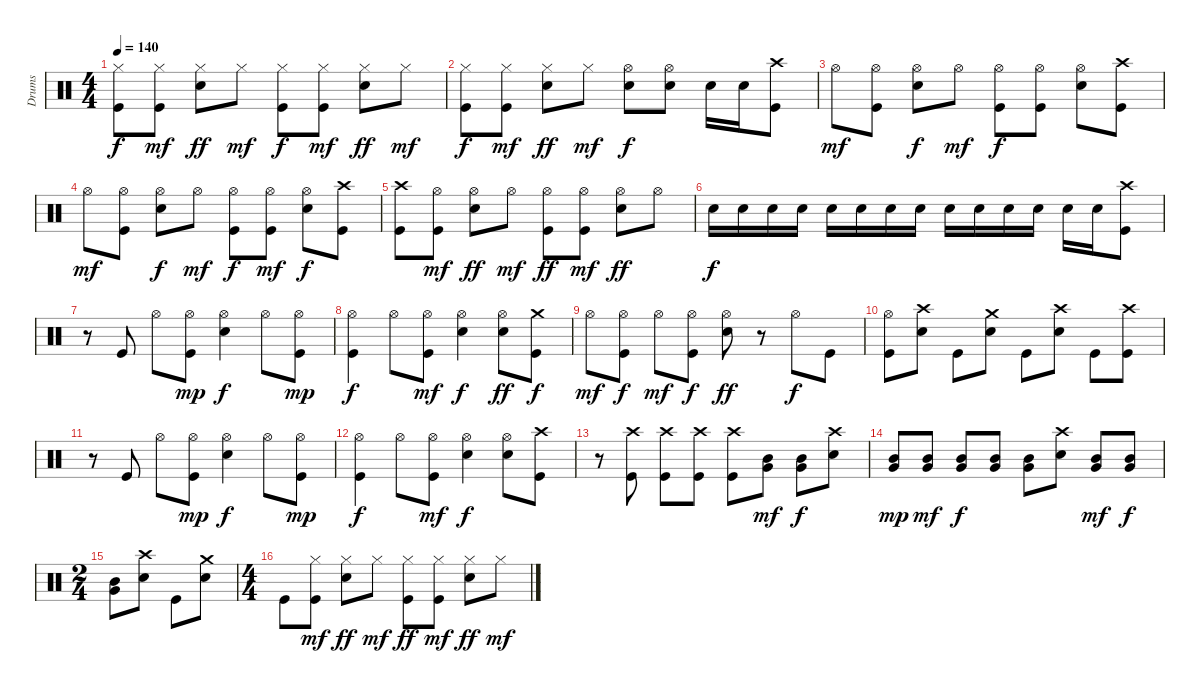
\track ("Drums" "Drums") {instrument percussion}
\staff {score}
\articulation defaults
\ts (4 4)
\tempo 140
\clef neutral
\ks c
("Hi-Hat (closed)" "Kick (hit)").8{dy f} ("Hi-Hat (closed)" "Kick (hit)").8{dy mf} ("Hi-Hat (closed)" "Snare (hit) 2").8{dy ff} "Hi-Hat (closed)".8{dy mf} ("Hi-Hat (closed)" "Kick (hit)").8{dy f} ("Hi-Hat (closed)" "Kick (hit)").8{dy mf} ("Hi-Hat (closed)" "Snare (hit) 2").8{dy ff} "Hi-Hat (closed)".8{dy mf} |
("Hi-Hat (closed)" "Kick (hit)").8{dy f} ("Hi-Hat (closed)" "Kick (hit)").8{dy mf} ("Hi-Hat (closed)" "Snare (hit) 2").8{dy ff} "Hi-Hat (closed)".8{dy mf} ("Hi-Hat (open)" "Snare (hit) 2").8{dy f} ("Hi-Hat (open)" "Snare (hit) 2").8 "Snare (hit) 2".16 "Snare (hit) 2".16 ("Crash high (hit)" "Kick (hit)").8 |
"Hi-Hat (open)".8{dy mf} ("Hi-Hat (open)" "Kick (hit)").8 ("Hi-Hat (open)" "Snare (hit) 2").8{dy f} "Hi-Hat (open)".8{dy mf} ("Hi-Hat (open)" "Kick (hit)").8{dy f} ("Hi-Hat (open)" "Kick (hit)").8 ("Hi-Hat (open)" "Snare (hit) 2").8 ("Crash high (hit)" "Kick (hit)").8 |
"Hi-Hat (open)".8{dy mf} ("Hi-Hat (open)" "Kick (hit)").8 ("Hi-Hat (open)" "Snare (hit) 2").8{dy f} "Hi-Hat (open)".8{dy mf} ("Hi-Hat (open)" "Kick (hit)").8{dy f} ("Hi-Hat (open)" "Kick (hit)").8{dy mf} ("Hi-Hat (open)" "Snare (hit) 2").8{dy f} ("Crash high (hit)" "Kick (hit)").8 |
("Crash high (hit)" "Kick (hit)").8 ("Hi-Hat (open)" "Kick (hit)").8{dy mf} ("Hi-Hat (open)" "Snare (hit) 2").8{dy ff} "Hi-Hat (open)".8{dy mf} ("Hi-Hat (open)" "Kick (hit)").8{dy ff} ("Hi-Hat (open)" "Kick (hit)").8{dy mf} ("Hi-Hat (open)" "Snare (hit) 2").8{dy ff} "Hi-Hat (open)".8 |
"Snare (hit) 2".16{dy f} "Snare (hit) 2".16 "Snare (hit) 2".16 "Snare (hit) 2".16 "Snare (hit) 2".16 "Snare (hit) 2".16 "Snare (hit) 2".16 "Snare (hit) 2".16 "Snare (hit) 2".16 "Snare (hit) 2".16 "Snare (hit) 2".16 "Snare (hit) 2".16 "Snare (hit) 2".16 "Snare (hit) 2".16 ("Crash high (hit)" "Kick (hit)").8 |
r.8 "Kick (hit)".8 "Hi-Hat (open)".8 ("Hi-Hat (open)" "Kick (hit)").8{dy mp} ("Hi-Hat (open)" "Snare (hit) 2").4{dy f} "Hi-Hat (open)".8 ("Hi-Hat (open)" "Kick (hit)").8{dy mp} |
("Hi-Hat (open)" "Kick (hit)").4{dy f} "Hi-Hat (open)".8 ("Hi-Hat (open)" "Kick (hit)").8{dy mf} ("Hi-Hat (open)" "Snare (hit) 2").4{dy f} ("Hi-Hat (open)" "Snare (hit) 2").8{dy ff} ("Crash medium (hit)" "Kick (hit)").8{dy f} |
"Hi-Hat (open)".8{dy mf} ("Hi-Hat (open)" "Kick (hit)").8{dy f} "Hi-Hat (open)".8{dy mf} ("Hi-Hat (open)" "Kick (hit)").8{dy f} ("Hi-Hat (open)" "Snare (hit) 2").8{dy ff} r.8 "Hi-Hat (open)".8{dy f} "Kick (hit)".8 |
("Hi-Hat (open)" "Kick (hit)").8 ("Crash high (hit)" "Snare (hit) 2").8 "Kick (hit)".8 ("Crash medium (hit)" "Snare (hit) 2").8 "Kick (hit)".8 ("Crash high (hit)" "Snare (hit) 2").8 "Kick (hit)".8 ("Crash high (hit)" "Kick (hit)").8 |
r.8 "Kick (hit)".8 "Hi-Hat (open)".8 ("Hi-Hat (open)" "Kick (hit)").8{dy mp} ("Hi-Hat (open)" "Snare (hit) 2").4{dy f} "Hi-Hat (open)".8 ("Hi-Hat (open)" "Kick (hit)").8{dy mp} |
("Hi-Hat (open)" "Kick (hit)").4{dy f} "Hi-Hat (open)".8 ("Hi-Hat (open)" "Kick (hit)").8{dy mf} ("Hi-Hat (open)" "Snare (hit) 2").4{dy f} ("Hi-Hat (open)" "Snare (hit) 2").8 ("Crash high (hit)" "Kick (hit)").8 |
r.8 ("Crash high (hit)" "Kick (hit)").8 ("Crash high (hit)" "Kick (hit)").8 ("Crash high (hit)" "Kick (hit)").8 ("Crash high (hit)" "Kick (hit)").8 ("Very Low Tom (hit)" "Mid Tom (hit)").8{dy mf} ("Very Low Tom (hit)" "Mid Tom (hit)").8{dy f} ("Crash high (hit)" "Snare (hit) 2").8 |
("Very Low Tom (hit)" "Mid Tom (hit)").8{dy mp} ("Very Low Tom (hit)" "Mid Tom (hit)").8{dy mf} ("Very Low Tom (hit)" "Mid Tom (hit)").8{dy f} ("Very Low Tom (hit)" "Mid Tom (hit)").8 ("Very Low Tom (hit)" "Mid Tom (hit)").8 ("Crash high (hit)" "Snare (hit) 2").8 ("Very Low Tom (hit)" "Mid Tom (hit)").8{dy mf} ("Very Low Tom (hit)" "Mid Tom (hit)").8{dy f} |
\ts (2 4)
("Mid Tom (hit)" "Very Low Tom (hit)").8 ("Crash high (hit)" "Snare (hit) 2").8 "Kick (hit)".8 ("Crash medium (hit)" "Snare (hit) 2").8 |
\ts (4 4)
"Kick (hit)".8 ("Hi-Hat (closed)" "Kick (hit)").8{dy mf} ("Hi-Hat (closed)" "Snare (hit) 2").8{dy ff} "Hi-Hat (closed)".8{dy mf} ("Hi-Hat (closed)" "Kick (hit)").8{dy ff} ("Hi-Hat (closed)" "Kick (hit)").8{dy mf} ("Hi-Hat (closed)" "Snare (hit) 2").8{dy ff} "Hi-Hat (closed)".8{dy mf}
